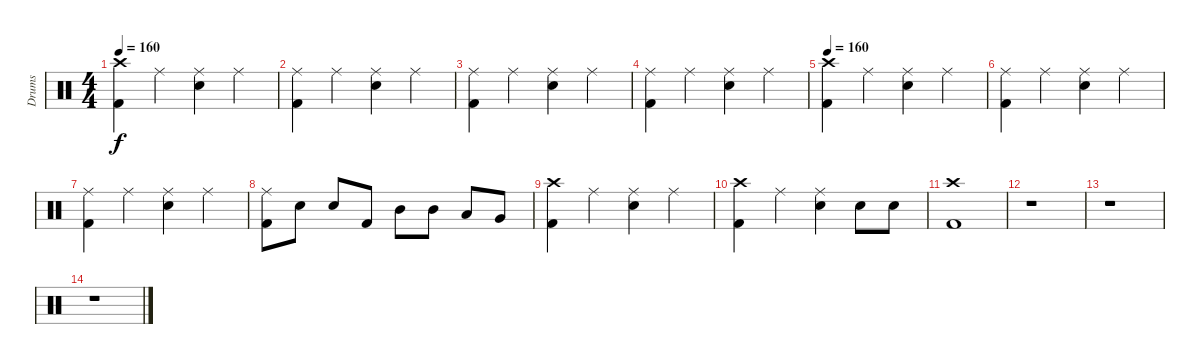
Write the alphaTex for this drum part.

\track ("Drums" "Drums") {instrument percussion}
\staff {score}
\articulation defaults
\ts (4 4)
\tempo 160
\clef neutral
\ks c
("Crash high (hit)" "Kick (hit) 2").4{dy f} "Ride (middle)".4 ("Ride (middle)" "Electric Snare (hit)").4 "Ride (middle)".4 |
("Ride (middle)" "Kick (hit) 2").4 "Ride (middle)".4 ("Ride (middle)" "Electric Snare (hit)").4 "Ride (middle)".4 |
("Ride (middle)" "Kick (hit) 2").4 "Ride (middle)".4 ("Ride (middle)" "Electric Snare (hit)").4 "Ride (middle)".4 |
("Ride (middle)" "Kick (hit) 2").4 "Ride (middle)".4 ("Ride (middle)" "Electric Snare (hit)").4 "Ride (middle)".4 |
\tempo 160
("Crash high (hit)" "Kick (hit) 2").4 "Ride (middle)".4 ("Ride (middle)" "Electric Snare (hit)").4 "Ride (middle)".4 |
("Ride (middle)" "Kick (hit) 2").4 "Ride (middle)".4 ("Ride (middle)" "Electric Snare (hit)").4 "Ride (middle)".4 |
("Ride (middle)" "Kick (hit) 2").4 "Ride (middle)".4 ("Ride (middle)" "Electric Snare (hit)").4 "Ride (middle)".4 |
("Ride (middle)" "Kick (hit) 2").8 "Electric Snare (hit)".8 "Electric Snare (hit)".8 "Kick (hit) 2".8 "Mid Tom (hit)".8 "Mid Tom (hit)".8 "Low Tom (hit)".8 "Very Low Tom (hit)".8 |
("Crash high (hit)" "Kick (hit) 2").4 "Ride (middle)".4 ("Ride (middle)" "Electric Snare (hit)").4 "Ride (middle)".4 |
("Crash high (hit)" "Kick (hit) 2").4 "Ride (middle)".4 ("Ride (middle)" "Electric Snare (hit)").4 "Electric Snare (hit)".8 "Electric Snare (hit)".8 |
("Crash high (hit)" "Kick (hit) 2").1 |
r.1 |
r.1 |
r.1
